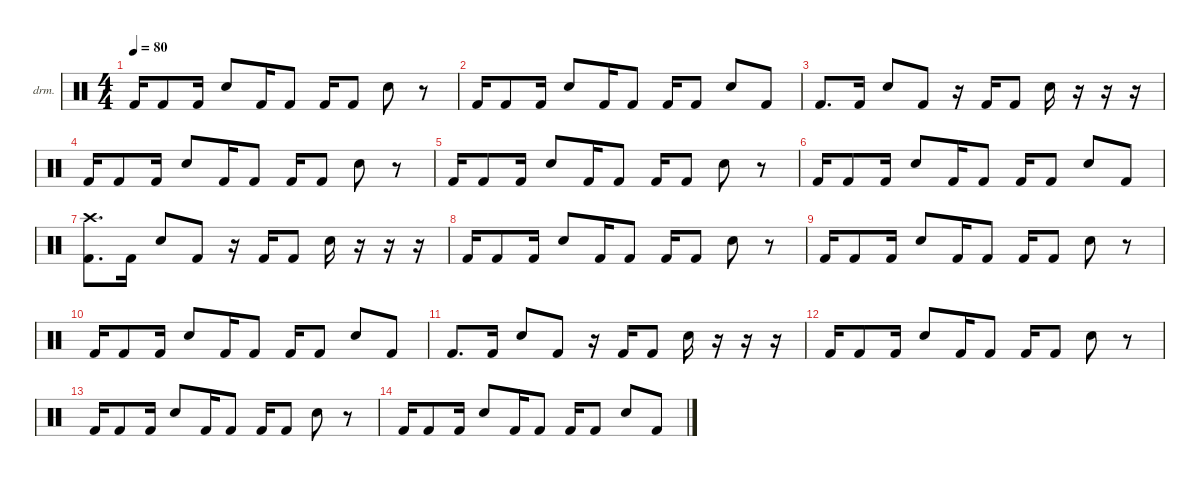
\defaultSystemsLayout 4
\hideDynamics
\bracketExtendMode nobrackets
\firstSystemTrackNameOrientation horizontal
\otherSystemsTrackNameOrientation horizontal
\track ("Drumkit" "drm.") {instrument percussion}
\staff {score}
\articulation defaults
\ts (4 4)
\tempo 80
\clef neutral
\ks c "Kick (hit) 2".16{dy mf beam Up} "Kick (hit) 2".8{beam Up} "Kick (hit) 2".16{beam Up} "Snare (hit) 2".8{beam Up} "Kick (hit) 2".16{beam Up} "Kick (hit) 2".8{beam Up} "Kick (hit) 2".16{beam Up} "Kick (hit) 2".8{beam Up} "Snare (hit) 2".8{beam Down}
r.8{beam Down} |
"Kick (hit) 2".16{beam Up} "Kick (hit) 2".8{beam Up} "Kick (hit) 2".16{beam Up} "Snare (hit) 2".8{beam Up} "Kick (hit) 2".16{beam Up} "Kick (hit) 2".8{beam Up} "Kick (hit) 2".16{beam Up} "Kick (hit) 2".8{beam Up} "Snare (hit) 2".8{beam Up} "Kick (hit) 2".8{beam Up} |
"Kick (hit) 2".8{d beam Up} "Kick (hit) 2".16{beam Up} "Snare (hit) 2".8{beam Up} "Kick (hit) 2".8{beam Up} r.16{beam Up} "Kick (hit) 2".16{beam Up} "Kick (hit) 2".8{beam Up} "Snare (hit) 2".16{beam Down} r.16{beam Down} r.16{beam Down} r.16{beam Down} |
"Kick (hit) 2".16{beam Up} "Kick (hit) 2".8{beam Up} "Kick (hit) 2".16{beam Up} "Snare (hit) 2".8{beam Up} "Kick (hit) 2".16{beam Up} "Kick (hit) 2".8{beam Up} "Kick (hit) 2".16{beam Up} "Kick (hit) 2".8{beam Up} "Snare (hit) 2".8{beam Down} r.8{beam Down} |
"Kick (hit) 2".16{beam Up} "Kick (hit) 2".8{beam Up} "Kick (hit) 2".16{beam Up} "Snare (hit) 2".8{beam Up} "Kick (hit) 2".16{beam Up} "Kick (hit) 2".8{beam Up} "Kick (hit) 2".16{beam Up} "Kick (hit) 2".8{beam Up} "Snare (hit) 2".8{beam Down} r.8{beam Down} |
"Kick (hit) 2".16{beam Up} "Kick (hit) 2".8{beam Up} "Kick (hit) 2".16{beam Up} "Snare (hit) 2".8{beam Up} "Kick (hit) 2".16{beam Up} "Kick (hit) 2".8{beam Up} "Kick (hit) 2".16{beam Up} "Kick (hit) 2".8{beam Up} "Snare (hit) 2".8{beam Up} "Kick (hit) 2".8{beam Up} |
("Kick (hit) 2" "Crash high (hit)").8{d beam Down} "Kick (hit) 2".16{beam Down} "Snare (hit) 2".8{beam Up} "Kick (hit) 2".8{beam Up} r.16{beam Up} "Kick (hit) 2".16{beam Up} "Kick (hit) 2".8{beam Up} "Snare (hit) 2".16{beam Down} r.16{beam Down} r.16{beam Down} r.16{beam Down} |
"Kick (hit) 2".16{beam Up} "Kick (hit) 2".8{beam Up} "Kick (hit) 2".16{beam Up} "Snare (hit) 2".8{beam Up} "Kick (hit) 2".16{beam Up} "Kick (hit) 2".8{beam Up} "Kick (hit) 2".16{beam Up} "Kick (hit) 2".8{beam Up} "Snare (hit) 2".8{beam Down} r.8{beam Down} |
"Kick (hit) 2".16{beam Up} "Kick (hit) 2".8{beam Up} "Kick (hit) 2".16{beam Up} "Snare (hit) 2".8{beam Up} "Kick (hit) 2".16{beam Up} "Kick (hit) 2".8{beam Up} "Kick (hit) 2".16{beam Up} "Kick (hit) 2".8{beam Up} "Snare (hit) 2".8{beam Down} r.8{beam Down} |
"Kick (hit) 2".16{beam Up} "Kick (hit) 2".8{beam Up} "Kick (hit) 2".16{beam Up} "Snare (hit) 2".8{beam Up} "Kick (hit) 2".16{beam Up} "Kick (hit) 2".8{beam Up} "Kick (hit) 2".16{beam Up} "Kick (hit) 2".8{beam Up} "Snare (hit) 2".8{beam Up} "Kick (hit) 2".8{beam Up} |
"Kick (hit) 2".8{d beam Up} "Kick (hit) 2".16{beam Up} "Snare (hit) 2".8{beam Up} "Kick (hit) 2".8{beam Up} r.16{beam Up} "Kick (hit) 2".16{beam Up} "Kick (hit) 2".8{beam Up} "Snare (hit) 2".16{beam Down} r.16{beam Down} r.16{beam Down} r.16{beam Down} |
"Kick (hit) 2".16{beam Up} "Kick (hit) 2".8{beam Up} "Kick (hit) 2".16{beam Up} "Snare (hit) 2".8{beam Up} "Kick (hit) 2".16{beam Up} "Kick (hit) 2".8{beam Up} "Kick (hit) 2".16{beam Up} "Kick (hit) 2".8{beam Up} "Snare (hit) 2".8{beam Down} r.8{beam Down} |
"Kick (hit) 2".16{beam Up} "Kick (hit) 2".8{beam Up} "Kick (hit) 2".16{beam Up} "Snare (hit) 2".8{beam Up} "Kick (hit) 2".16{beam Up} "Kick (hit) 2".8{beam Up} "Kick (hit) 2".16{beam Up} "Kick (hit) 2".8{beam Up} "Snare (hit) 2".8{beam Down} r.8{beam Down} |
"Kick (hit) 2".16{beam Up} "Kick (hit) 2".8{beam Up} "Kick (hit) 2".16{beam Up} "Snare (hit) 2".8{beam Up} "Kick (hit) 2".16{beam Up} "Kick (hit) 2".8{beam Up} "Kick (hit) 2".16{beam Up} "Kick (hit) 2".8{beam Up} "Snare (hit) 2".8{beam Up} "Kick (hit) 2".8{beam Up}
